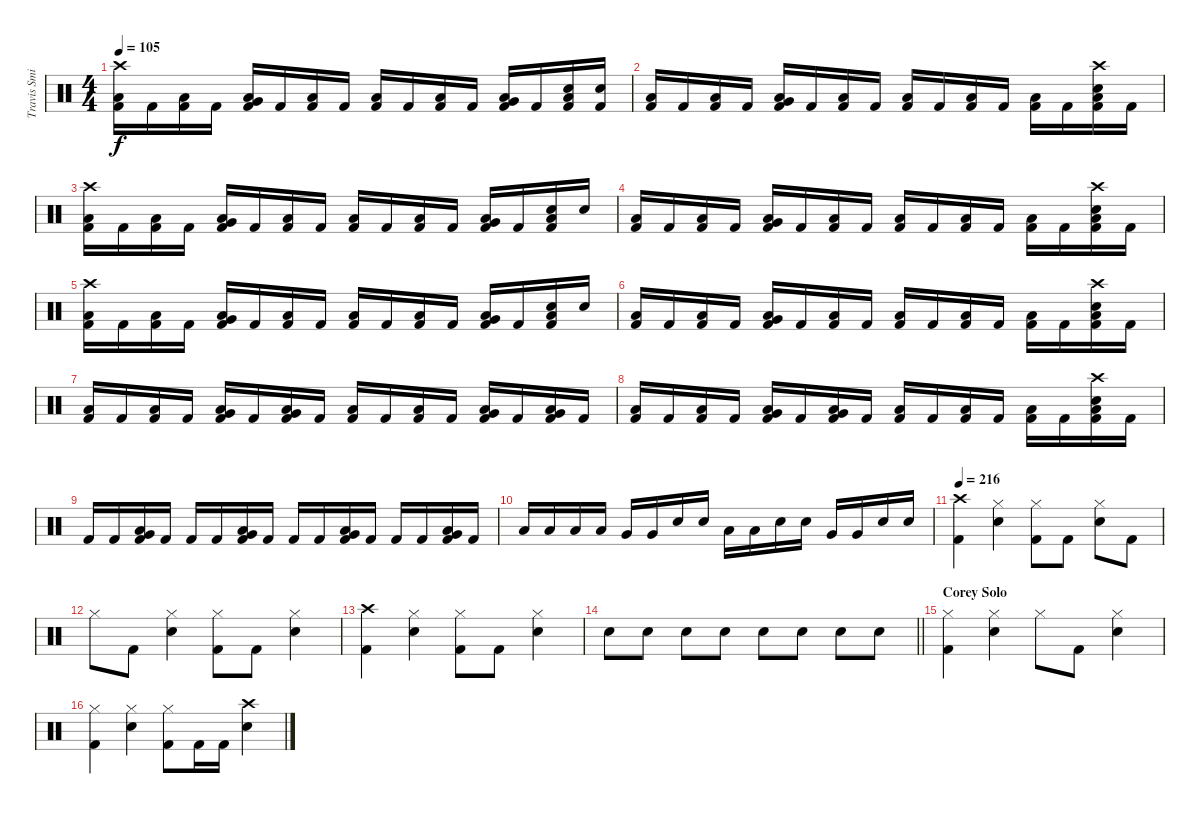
\track ("Travis Smith (Drums)" "Travis Smi") {instrument percussion}
\staff {score}
\articulation defaults
\ts (4 4)
\tempo 105
\clef neutral
\ks c
("Crash high (hit)" "Kick (hit) 2" "Low Floor Tom (hit)").16{dy f} "Kick (hit) 2".16 ("Low Floor Tom (hit)" "Kick (hit) 2").16 "Kick (hit) 2".16 ("Low Floor Tom (hit)" "Very Low Tom (hit)" "Kick (hit) 2").16 "Kick (hit) 2".16 ("Low Floor Tom (hit)" "Kick (hit) 2").16 "Kick (hit) 2".16 ("Low Floor Tom (hit)" "Kick (hit) 2").16 "Kick (hit) 2".16 ("Low Floor Tom (hit)" "Kick (hit) 2").16 "Kick (hit) 2".16 ("Low Floor Tom (hit)" "Very Low Tom (hit)" "Kick (hit) 2").16 "Kick (hit) 2".16 ("Electric Snare (hit)" "Low Floor Tom (hit)" "Kick (hit) 2").16 ("Electric Snare (hit)" "Kick (hit) 2").16 |
("Low Floor Tom (hit)" "Kick (hit) 2").16 "Kick (hit) 2".16 ("Low Floor Tom (hit)" "Kick (hit) 2").16 "Kick (hit) 2".16 ("Low Floor Tom (hit)" "Very Low Tom (hit)" "Kick (hit) 2").16 "Kick (hit) 2".16 ("Low Floor Tom (hit)" "Kick (hit) 2").16 "Kick (hit) 2".16 ("Low Floor Tom (hit)" "Kick (hit) 2").16 "Kick (hit) 2".16 ("Low Floor Tom (hit)" "Kick (hit) 2").16 "Kick (hit) 2".16 ("Low Floor Tom (hit)" "Kick (hit) 2").16 "Kick (hit) 2".16 ("Crash high (hit)" "Electric Snare (hit)" "Low Floor Tom (hit)" "Kick (hit) 2").16 "Kick (hit) 2".16 |
("Crash high (hit)" "Low Floor Tom (hit)" "Kick (hit) 2").16 "Kick (hit) 2".16 ("Low Floor Tom (hit)" "Kick (hit) 2").16 "Kick (hit) 2".16 ("Low Floor Tom (hit)" "Very Low Tom (hit)" "Kick (hit) 2").16 "Kick (hit) 2".16 ("Low Floor Tom (hit)" "Kick (hit) 2").16 "Kick (hit) 2".16 ("Low Floor Tom (hit)" "Kick (hit) 2").16 "Kick (hit) 2".16 ("Low Floor Tom (hit)" "Kick (hit) 2").16 "Kick (hit) 2".16 ("Low Floor Tom (hit)" "Very Low Tom (hit)" "Kick (hit) 2").16 "Kick (hit) 2".16 ("Electric Snare (hit)" "Low Floor Tom (hit)" "Kick (hit) 2").16 "Electric Snare (hit)".16 |
("Low Floor Tom (hit)" "Kick (hit) 2").16 "Kick (hit) 2".16 ("Low Floor Tom (hit)" "Kick (hit) 2").16 "Kick (hit) 2".16 ("Low Floor Tom (hit)" "Very Low Tom (hit)" "Kick (hit) 2").16 "Kick (hit) 2".16 ("Low Floor Tom (hit)" "Kick (hit) 2").16 "Kick (hit) 2".16 ("Low Floor Tom (hit)" "Kick (hit) 2").16 "Kick (hit) 2".16 ("Low Floor Tom (hit)" "Kick (hit) 2").16 "Kick (hit) 2".16 ("Low Floor Tom (hit)" "Kick (hit) 2").16 "Kick (hit) 2".16 ("Crash high (hit)" "Electric Snare (hit)" "Low Floor Tom (hit)" "Kick (hit) 2").16 "Kick (hit) 2".16 |
("Crash high (hit)" "Low Floor Tom (hit)" "Kick (hit) 2").16 "Kick (hit) 2".16 ("Low Floor Tom (hit)" "Kick (hit) 2").16 "Kick (hit) 2".16 ("Low Floor Tom (hit)" "Very Low Tom (hit)" "Kick (hit) 2").16 "Kick (hit) 2".16 ("Low Floor Tom (hit)" "Kick (hit) 2").16 "Kick (hit) 2".16 ("Low Floor Tom (hit)" "Kick (hit) 2").16 "Kick (hit) 2".16 ("Low Floor Tom (hit)" "Kick (hit) 2").16 "Kick (hit) 2".16 ("Low Floor Tom (hit)" "Very Low Tom (hit)" "Kick (hit) 2").16 "Kick (hit) 2".16 ("Electric Snare (hit)" "Low Floor Tom (hit)" "Kick (hit) 2").16 "Electric Snare (hit)".16 |
("Low Floor Tom (hit)" "Kick (hit) 2").16 "Kick (hit) 2".16 ("Low Floor Tom (hit)" "Kick (hit) 2").16 "Kick (hit) 2".16 ("Low Floor Tom (hit)" "Very Low Tom (hit)" "Kick (hit) 2").16 "Kick (hit) 2".16 ("Low Floor Tom (hit)" "Kick (hit) 2").16 "Kick (hit) 2".16 ("Low Floor Tom (hit)" "Kick (hit) 2").16 "Kick (hit) 2".16 ("Low Floor Tom (hit)" "Kick (hit) 2").16 "Kick (hit) 2".16 ("Low Floor Tom (hit)" "Kick (hit) 2").16 "Kick (hit) 2".16 ("Crash high (hit)" "Electric Snare (hit)" "Low Floor Tom (hit)" "Kick (hit) 2").16 "Kick (hit) 2".16 |
("Low Floor Tom (hit)" "Kick (hit) 2").16 "Kick (hit) 2".16 ("Low Floor Tom (hit)" "Kick (hit) 2").16 "Kick (hit) 2".16 ("Low Floor Tom (hit)" "Very Low Tom (hit)" "Kick (hit) 2").16 "Kick (hit) 2".16 ("Low Floor Tom (hit)" "Very Low Tom (hit)" "Kick (hit) 2").16 "Kick (hit) 2".16 ("Low Floor Tom (hit)" "Kick (hit) 2").16 "Kick (hit) 2".16 ("Low Floor Tom (hit)" "Kick (hit) 2").16 "Kick (hit) 2".16 ("Low Floor Tom (hit)" "Very Low Tom (hit)" "Kick (hit) 2").16 "Kick (hit) 2".16 ("Low Floor Tom (hit)" "Very Low Tom (hit)" "Kick (hit) 2").16 "Kick (hit) 2".16 |
("Low Floor Tom (hit)" "Kick (hit) 2").16 "Kick (hit) 2".16 ("Low Floor Tom (hit)" "Kick (hit) 2").16 "Kick (hit) 2".16 ("Low Floor Tom (hit)" "Very Low Tom (hit)" "Kick (hit) 2").16 "Kick (hit) 2".16 ("Low Floor Tom (hit)" "Very Low Tom (hit)" "Kick (hit) 2").16 "Kick (hit) 2".16 ("Low Floor Tom (hit)" "Kick (hit) 2").16 "Kick (hit) 2".16 ("Low Floor Tom (hit)" "Kick (hit) 2").16 "Kick (hit) 2".16 ("Low Floor Tom (hit)" "Kick (hit) 2").16 "Kick (hit) 2".16 ("Crash high (hit)" "Electric Snare (hit)" "Low Floor Tom (hit)" "Kick (hit) 2").16 "Kick (hit) 2".16 |
"Kick (hit) 2".16 "Kick (hit) 2".16 ("Low Floor Tom (hit)" "Very Low Tom (hit)" "Kick (hit) 2").16 "Kick (hit) 2".16 "Kick (hit) 2".16 "Kick (hit) 2".16 ("Low Floor Tom (hit)" "Very Low Tom (hit)" "Kick (hit) 2").16 "Kick (hit) 2".16 "Kick (hit) 2".16 "Kick (hit) 2".16 ("Low Floor Tom (hit)" "Very Low Tom (hit)" "Kick (hit) 2").16 "Kick (hit) 2".16 "Kick (hit) 2".16 "Kick (hit) 2".16 ("Low Floor Tom (hit)" "Very Low Tom (hit)" "Kick (hit) 2").16 "Kick (hit) 2".16 |
"Low Floor Tom (hit)".16 "Low Floor Tom (hit)".16 "Low Floor Tom (hit)".16 "Low Floor Tom (hit)".16 "Very Low Tom (hit)".16 "Very Low Tom (hit)".16 "Electric Snare (hit)".16 "Electric Snare (hit)".16 "Low Floor Tom (hit)".16 "Low Floor Tom (hit)".16 "Electric Snare (hit)".16 "Electric Snare (hit)".16 "Very Low Tom (hit)".16 "Very Low Tom (hit)".16 "Electric Snare (hit)".16 "Electric Snare (hit)".16 |
\tempo 216
("Crash high (hit)" "Kick (hit) 2").4 ("Hi-Hat (closed)" "Electric Snare (hit)").4 ("Hi-Hat (closed)" "Kick (hit) 2").8 "Kick (hit) 2".8 ("Hi-Hat (closed)" "Electric Snare (hit)").8 "Kick (hit) 2".8 |
"Hi-Hat (closed)".8 "Kick (hit) 2".8 ("Hi-Hat (closed)" "Electric Snare (hit)").4 ("Hi-Hat (closed)" "Kick (hit) 2").8 "Kick (hit) 2".8 ("Hi-Hat (closed)" "Electric Snare (hit)").4 |
("Crash high (hit)" "Kick (hit) 2").4 ("Hi-Hat (closed)" "Electric Snare (hit)").4 ("Hi-Hat (closed)" "Kick (hit) 2").8 "Kick (hit) 2".8 ("Hi-Hat (closed)" "Electric Snare (hit)").4 |
\barLineRight lightlight "Electric Snare (hit)".8 "Electric Snare (hit)".8 "Electric Snare (hit)".8 "Electric Snare (hit)".8 "Electric Snare (hit)".8 "Electric Snare (hit)".8 "Electric Snare (hit)".8 "Electric Snare (hit)".8
|
\section ("" "Corey Solo")
("Hi-Hat (closed)" "Kick (hit) 2").4 ("Hi-Hat (closed)" "Electric Snare (hit)").4 "Hi-Hat (closed)".8 "Kick (hit) 2".8 ("Hi-Hat (closed)" "Electric Snare (hit)").4 |
("Hi-Hat (closed)" "Kick (hit) 2").4 ("Hi-Hat (closed)" "Electric Snare (hit)").4 ("Hi-Hat (closed)" "Kick (hit) 2").8 "Kick (hit) 2".16 "Kick (hit) 2".16 ("Crash high (hit)" "Electric Snare (hit)").4
